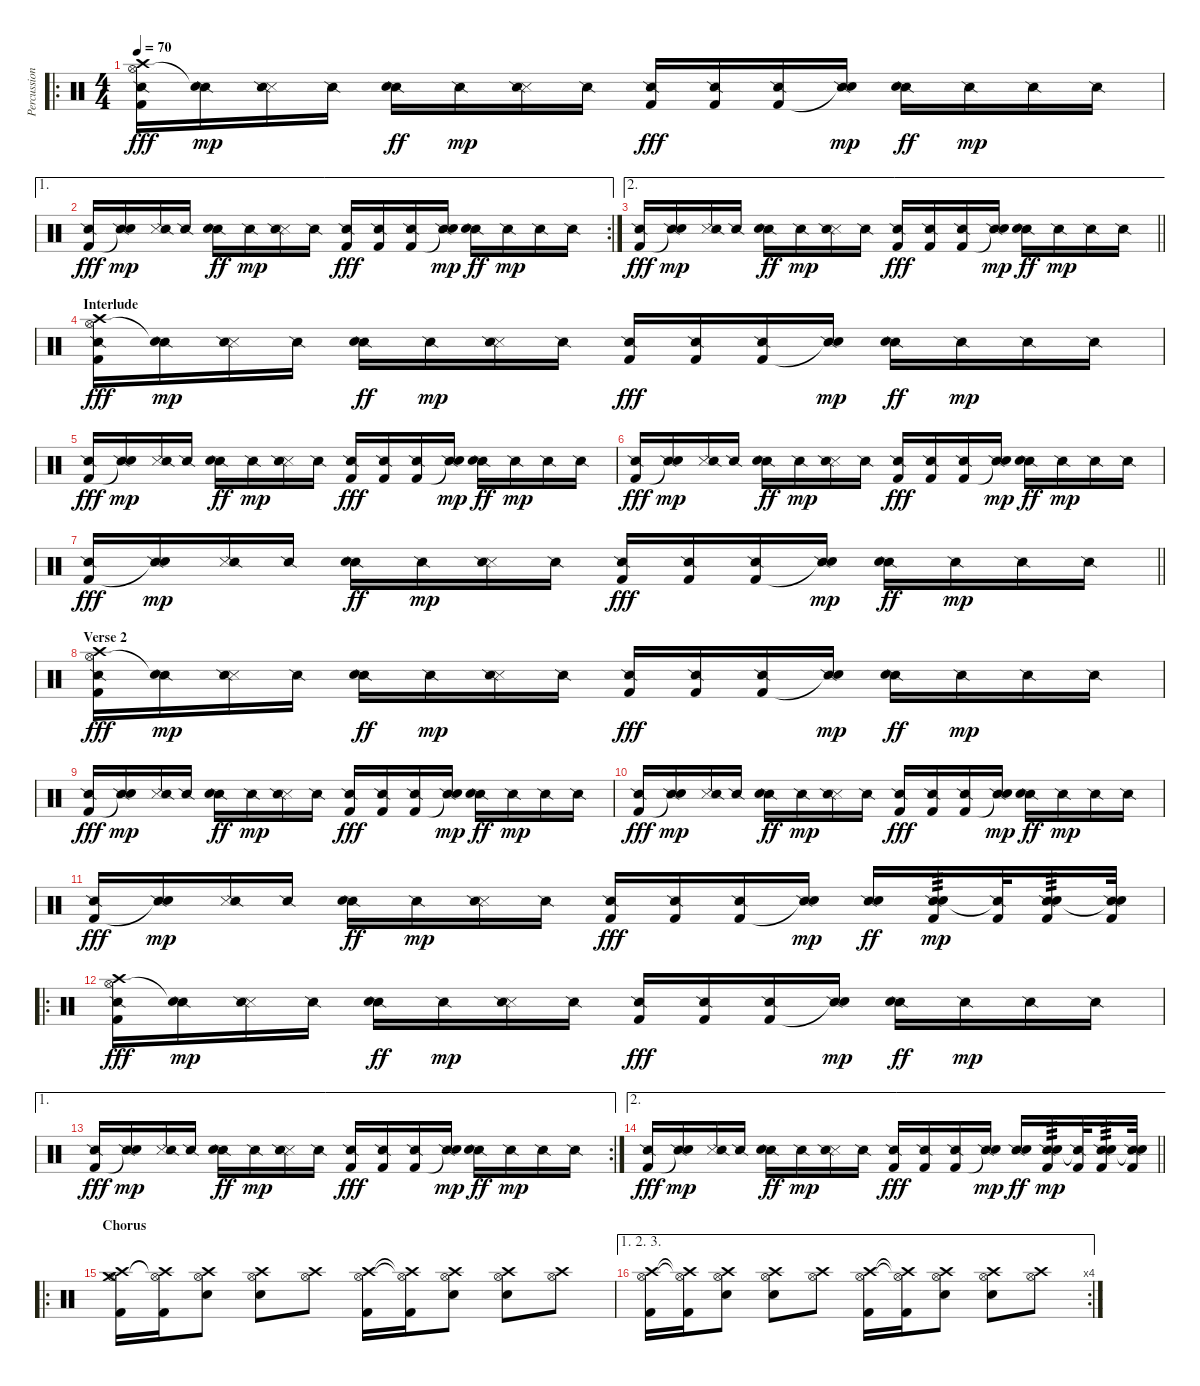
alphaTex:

\track ("Percussion" "Percussion") {instrument percussion}
\staff {score}
\articulation defaults
\ro
\ts (4 4)
\tempo 70
\clef neutral
\ks c
("Crash high (hit)" "Hi-Hat (open)" "Snare (side stick) 2" "Kick (hit) 2").16{dy fff} ("Snare (side stick) 2" "Snare (hit)"{t}).16{dy mp} ("Snare (side stick) 3" "Snare (side stick) 2").16 "Snare (side stick) 2".16 ("Snare (side stick) 2" "Electric Snare (hit)").16{dy ff} "Snare (side stick) 2".16{dy mp} ("Snare (side stick) 3" "Snare (side stick) 2").16 "Snare (side stick) 2".16 ("Snare (side stick) 2" "Kick (hit) 2").16{dy fff} ("Snare (side stick) 2" "Kick (hit) 2").16 ("Snare (side stick) 2" "Kick (hit) 2").16 ("Snare (side stick) 2" "Snare (hit)"{t}).16{dy mp} ("Snare (side stick) 2" "Electric Snare (hit)").16{dy ff} "Snare (side stick) 2".16{dy mp} "Snare (side stick) 2".16 "Snare (side stick) 2".16 |
\ae 1
\rc 2
("Snare (side stick) 2" "Kick (hit) 2").16{dy fff} ("Snare (side stick) 2" "Snare (hit)"{t}).16{dy mp} ("Snare (side stick) 3" "Snare (side stick) 2").16 "Snare (side stick) 2".16 ("Snare (side stick) 2" "Electric Snare (hit)").16{dy ff} "Snare (side stick) 2".16{dy mp} ("Snare (side stick) 3" "Snare (side stick) 2").16 "Snare (side stick) 2".16 ("Snare (side stick) 2" "Kick (hit) 2").16{dy fff} ("Snare (side stick) 2" "Kick (hit) 2").16 ("Snare (side stick) 2" "Kick (hit) 2").16 ("Snare (side stick) 2" "Snare (hit)"{t}).16{dy mp} ("Snare (side stick) 2" "Electric Snare (hit)").16{dy ff} "Snare (side stick) 2".16{dy mp} "Snare (side stick) 2".16 "Snare (side stick) 2".16 |
\ae 2
\barLineRight lightlight
("Snare (side stick) 2" "Kick (hit) 2").16{dy fff} ("Snare (side stick) 2" "Snare (hit)"{t}).16{dy mp} ("Snare (side stick) 3" "Snare (side stick) 2").16 "Snare (side stick) 2".16 ("Snare (side stick) 2" "Electric Snare (hit)").16{dy ff} "Snare (side stick) 2".16{dy mp} ("Snare (side stick) 3" "Snare (side stick) 2").16 "Snare (side stick) 2".16 ("Snare (side stick) 2" "Kick (hit) 2").16{dy fff} ("Snare (side stick) 2" "Kick (hit) 2").16 ("Snare (side stick) 2" "Kick (hit) 2").16 ("Snare (side stick) 2" "Snare (hit)"{t}).16{dy mp} ("Snare (side stick) 2" "Electric Snare (hit)").16{dy ff} "Snare (side stick) 2".16{dy mp} "Snare (side stick) 2".16 "Snare (side stick) 2".16 |
\section ("" "Interlude")
("Crash high (hit)" "Hi-Hat (open)" "Snare (side stick) 2" "Kick (hit) 2").16{dy fff} ("Snare (side stick) 2" "Snare (hit)"{t}).16{dy mp} ("Snare (side stick) 3" "Snare (side stick) 2").16 "Snare (side stick) 2".16 ("Snare (side stick) 2" "Electric Snare (hit)").16{dy ff} "Snare (side stick) 2".16{dy mp} ("Snare (side stick) 3" "Snare (side stick) 2").16 "Snare (side stick) 2".16 ("Snare (side stick) 2" "Kick (hit) 2").16{dy fff} ("Snare (side stick) 2" "Kick (hit) 2").16 ("Snare (side stick) 2" "Kick (hit) 2").16 ("Snare (side stick) 2" "Snare (hit)"{t}).16{dy mp} ("Snare (side stick) 2" "Electric Snare (hit)").16{dy ff} "Snare (side stick) 2".16{dy mp} "Snare (side stick) 2".16 "Snare (side stick) 2".16 |
("Snare (side stick) 2" "Kick (hit) 2").16{dy fff} ("Snare (side stick) 2" "Snare (hit)"{t}).16{dy mp} ("Snare (side stick) 3" "Snare (side stick) 2").16 "Snare (side stick) 2".16 ("Snare (side stick) 2" "Electric Snare (hit)").16{dy ff} "Snare (side stick) 2".16{dy mp} ("Snare (side stick) 3" "Snare (side stick) 2").16 "Snare (side stick) 2".16 ("Snare (side stick) 2" "Kick (hit) 2").16{dy fff} ("Snare (side stick) 2" "Kick (hit) 2").16 ("Snare (side stick) 2" "Kick (hit) 2").16 ("Snare (side stick) 2" "Snare (hit)"{t}).16{dy mp} ("Snare (side stick) 2" "Electric Snare (hit)").16{dy ff} "Snare (side stick) 2".16{dy mp} "Snare (side stick) 2".16 "Snare (side stick) 2".16 |
("Snare (side stick) 2" "Kick (hit) 2").16{dy fff} ("Snare (side stick) 2" "Snare (hit)"{t}).16{dy mp} ("Snare (side stick) 3" "Snare (side stick) 2").16 "Snare (side stick) 2".16 ("Snare (side stick) 2" "Electric Snare (hit)").16{dy ff} "Snare (side stick) 2".16{dy mp} ("Snare (side stick) 3" "Snare (side stick) 2").16 "Snare (side stick) 2".16 ("Snare (side stick) 2" "Kick (hit) 2").16{dy fff} ("Snare (side stick) 2" "Kick (hit) 2").16 ("Snare (side stick) 2" "Kick (hit) 2").16 ("Snare (side stick) 2" "Snare (hit)"{t}).16{dy mp} ("Snare (side stick) 2" "Electric Snare (hit)").16{dy ff} "Snare (side stick) 2".16{dy mp} "Snare (side stick) 2".16 "Snare (side stick) 2".16 |
\barLineRight lightlight
("Snare (side stick) 2" "Kick (hit) 2").16{dy fff} ("Snare (side stick) 2" "Snare (hit)"{t}).16{dy mp} ("Snare (side stick) 3" "Snare (side stick) 2").16 "Snare (side stick) 2".16 ("Snare (side stick) 2" "Electric Snare (hit)").16{dy ff} "Snare (side stick) 2".16{dy mp} ("Snare (side stick) 3" "Snare (side stick) 2").16 "Snare (side stick) 2".16 ("Snare (side stick) 2" "Kick (hit) 2").16{dy fff} ("Snare (side stick) 2" "Kick (hit) 2").16 ("Snare (side stick) 2" "Kick (hit) 2").16 ("Snare (side stick) 2" "Snare (hit)"{t}).16{dy mp} ("Snare (side stick) 2" "Electric Snare (hit)").16{dy ff} "Snare (side stick) 2".16{dy mp} "Snare (side stick) 2".16 "Snare (side stick) 2".16 |
\section ("" "Verse 2")
("Crash high (hit)" "Hi-Hat (open)" "Snare (side stick) 2" "Kick (hit) 2").16{dy fff} ("Snare (side stick) 2" "Snare (hit)"{t}).16{dy mp} ("Snare (side stick) 3" "Snare (side stick) 2").16 "Snare (side stick) 2".16 ("Snare (side stick) 2" "Electric Snare (hit)").16{dy ff} "Snare (side stick) 2".16{dy mp} ("Snare (side stick) 3" "Snare (side stick) 2").16 "Snare (side stick) 2".16 ("Snare (side stick) 2" "Kick (hit) 2").16{dy fff} ("Snare (side stick) 2" "Kick (hit) 2").16 ("Snare (side stick) 2" "Kick (hit) 2").16 ("Snare (side stick) 2" "Snare (hit)"{t}).16{dy mp} ("Snare (side stick) 2" "Electric Snare (hit)").16{dy ff} "Snare (side stick) 2".16{dy mp} "Snare (side stick) 2".16 "Snare (side stick) 2".16 |
("Snare (side stick) 2" "Kick (hit) 2").16{dy fff} ("Snare (side stick) 2" "Snare (hit)"{t}).16{dy mp} ("Snare (side stick) 3" "Snare (side stick) 2").16 "Snare (side stick) 2".16 ("Snare (side stick) 2" "Electric Snare (hit)").16{dy ff} "Snare (side stick) 2".16{dy mp} ("Snare (side stick) 3" "Snare (side stick) 2").16 "Snare (side stick) 2".16 ("Snare (side stick) 2" "Kick (hit) 2").16{dy fff} ("Snare (side stick) 2" "Kick (hit) 2").16 ("Snare (side stick) 2" "Kick (hit) 2").16 ("Snare (side stick) 2" "Snare (hit)"{t}).16{dy mp} ("Snare (side stick) 2" "Electric Snare (hit)").16{dy ff} "Snare (side stick) 2".16{dy mp} "Snare (side stick) 2".16 "Snare (side stick) 2".16 |
("Snare (side stick) 2" "Kick (hit) 2").16{dy fff} ("Snare (side stick) 2" "Snare (hit)"{t}).16{dy mp} ("Snare (side stick) 3" "Snare (side stick) 2").16 "Snare (side stick) 2".16 ("Snare (side stick) 2" "Electric Snare (hit)").16{dy ff} "Snare (side stick) 2".16{dy mp} ("Snare (side stick) 3" "Snare (side stick) 2").16 "Snare (side stick) 2".16 ("Snare (side stick) 2" "Kick (hit) 2").16{dy fff} ("Snare (side stick) 2" "Kick (hit) 2").16 ("Snare (side stick) 2" "Kick (hit) 2").16 ("Snare (side stick) 2" "Snare (hit)"{t}).16{dy mp} ("Snare (side stick) 2" "Electric Snare (hit)").16{dy ff} "Snare (side stick) 2".16{dy mp} "Snare (side stick) 2".16 "Snare (side stick) 2".16 |
("Snare (side stick) 2" "Kick (hit) 2").16{dy fff} ("Snare (side stick) 2" "Snare (hit)"{t}).16{dy mp} ("Snare (side stick) 3" "Snare (side stick) 2").16 "Snare (side stick) 2".16 ("Snare (side stick) 2" "Electric Snare (hit)").16{dy ff} "Snare (side stick) 2".16{dy mp} ("Snare (side stick) 3" "Snare (side stick) 2").16 "Snare (side stick) 2".16 ("Snare (side stick) 2" "Kick (hit) 2").16{dy fff} ("Snare (side stick) 2" "Kick (hit) 2").16 ("Snare (side stick) 2" "Kick (hit) 2").16 ("Snare (side stick) 2" "Snare (hit)"{t}).16{dy mp} ("Snare (side stick) 2" "Electric Snare (hit)").16{dy ff} ("Snare (side stick) 2" "Electric Snare (hit)" "Kick (hit) 2").16{tp 3 dy mp} ("Snare (side stick) 2"{t} "Kick (hit) 2").32 ("Snare (side stick) 2" "Electric Snare (hit)" "Kick (hit) 2").16{tp 3} ("Snare (side stick) 2"{t} "Electric Snare (hit)" "Kick (hit) 2").32 |
\ro
("Crash high (hit)" "Hi-Hat (open)" "Snare (side stick) 2" "Kick (hit) 2").16{dy fff} ("Snare (side stick) 2" "Snare (hit)"{t}).16{dy mp} ("Snare (side stick) 3" "Snare (side stick) 2").16 "Snare (side stick) 2".16 ("Snare (side stick) 2" "Electric Snare (hit)").16{dy ff} "Snare (side stick) 2".16{dy mp} ("Snare (side stick) 3" "Snare (side stick) 2").16 "Snare (side stick) 2".16 ("Snare (side stick) 2" "Kick (hit) 2").16{dy fff} ("Snare (side stick) 2" "Kick (hit) 2").16 ("Snare (side stick) 2" "Kick (hit) 2").16 ("Snare (side stick) 2" "Snare (hit)"{t}).16{dy mp} ("Snare (side stick) 2" "Electric Snare (hit)").16{dy ff} "Snare (side stick) 2".16{dy mp} "Snare (side stick) 2".16 "Snare (side stick) 2".16 |
\ae 1
\rc 2
("Snare (side stick) 2" "Kick (hit) 2").16{dy fff} ("Snare (side stick) 2" "Snare (hit)"{t}).16{dy mp} ("Snare (side stick) 3" "Snare (side stick) 2").16 "Snare (side stick) 2".16 ("Snare (side stick) 2" "Electric Snare (hit)").16{dy ff} "Snare (side stick) 2".16{dy mp} ("Snare (side stick) 3" "Snare (side stick) 2").16 "Snare (side stick) 2".16 ("Snare (side stick) 2" "Kick (hit) 2").16{dy fff} ("Snare (side stick) 2" "Kick (hit) 2").16 ("Snare (side stick) 2" "Kick (hit) 2").16 ("Snare (side stick) 2" "Snare (hit)"{t}).16{dy mp} ("Snare (side stick) 2" "Electric Snare (hit)").16{dy ff} "Snare (side stick) 2".16{dy mp} "Snare (side stick) 2".16 "Snare (side stick) 2".16 |
\ae 2
\barLineRight lightlight
("Snare (side stick) 2" "Kick (hit) 2").16{dy fff} ("Snare (side stick) 2" "Snare (hit)"{t}).16{dy mp} ("Snare (side stick) 3" "Snare (side stick) 2").16 "Snare (side stick) 2".16 ("Snare (side stick) 2" "Electric Snare (hit)").16{dy ff} "Snare (side stick) 2".16{dy mp} ("Snare (side stick) 3" "Snare (side stick) 2").16 "Snare (side stick) 2".16 ("Snare (side stick) 2" "Kick (hit) 2").16{dy fff} ("Snare (side stick) 2" "Kick (hit) 2").16 ("Snare (side stick) 2" "Kick (hit) 2").16 ("Snare (side stick) 2" "Snare (hit)"{t}).16{dy mp} ("Snare (side stick) 2" "Electric Snare (hit)").16{dy ff} ("Snare (side stick) 2" "Electric Snare (hit)" "Kick (hit) 2").16{tp 3 dy mp} ("Snare (side stick) 2"{t} "Kick (hit) 2").32 ("Snare (side stick) 2" "Electric Snare (hit)" "Kick (hit) 2").16{tp 3} ("Snare (side stick) 2"{t} "Electric Snare (hit)" "Kick (hit) 2").32 |
\ro
\section ("" "Chorus")
("Crash medium (hit)" "Crash high (hit)" "Hi-Hat (open)" "Kick (hit) 2").16 ("Crash high (hit)"{t} "Hi-Hat (open)"{t} "Kick (hit) 2").16 ("Crash high (hit)" "Hi-Hat (open)" "Electric Snare (hit)").8 ("Crash high (hit)" "Hi-Hat (open)" "Electric Snare (hit)").8 ("Crash high (hit)" "Hi-Hat (open)").8 ("Crash high (hit)" "Hi-Hat (open)" "Kick (hit) 2").16 ("Crash high (hit)"{t} "Hi-Hat (open)"{t} "Kick (hit) 2").16 ("Crash high (hit)" "Hi-Hat (open)" "Electric Snare (hit)").8 ("Crash high (hit)" "Hi-Hat (open)" "Electric Snare (hit)").8 ("Crash high (hit)" "Hi-Hat (open)").8 |
\ae (1 2 3)
\rc 4
("Crash high (hit)" "Hi-Hat (open)" "Kick (hit) 2").16 ("Crash high (hit)"{t} "Hi-Hat (open)"{t} "Kick (hit) 2").16 ("Crash high (hit)" "Hi-Hat (open)" "Electric Snare (hit)").8 ("Crash high (hit)" "Hi-Hat (open)" "Electric Snare (hit)").8 ("Crash high (hit)" "Hi-Hat (open)").8 ("Crash high (hit)" "Hi-Hat (open)" "Kick (hit) 2").16 ("Crash high (hit)"{t} "Hi-Hat (open)"{t} "Kick (hit) 2").16 ("Crash high (hit)" "Hi-Hat (open)" "Electric Snare (hit)").8 ("Crash high (hit)" "Hi-Hat (open)" "Electric Snare (hit)").8 ("Crash high (hit)" "Hi-Hat (open)").8
